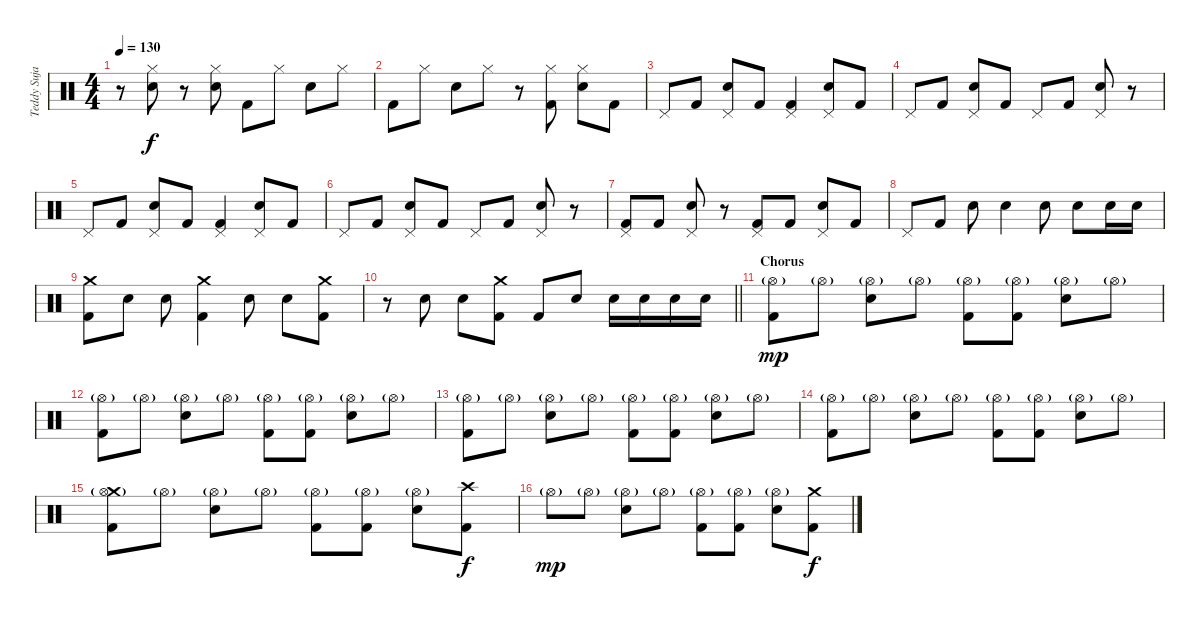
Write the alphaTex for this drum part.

\track ("Teddy Sujaya" "Teddy Suja") {instrument percussion}
\staff {score}
\articulation defaults
\ts (4 4)
\tempo 130
\clef neutral
\ks c
r.8{dy f} ("Hi-Hat (closed)" "Electric Snare (hit)").8 r.8 ("Hi-Hat (closed)" "Electric Snare (hit)").8 "Kick (hit) 2".8 "Hi-Hat (closed)".8 "Electric Snare (hit)".8 "Hi-Hat (closed)".8 |
"Kick (hit) 2".8 "Hi-Hat (closed)".8 "Electric Snare (hit)".8 "Hi-Hat (closed)".8 r.8 ("Hi-Hat (closed)" "Kick (hit) 2").8 ("Hi-Hat (closed)" "Electric Snare (hit)").8 "Kick (hit) 2".8 |
"Pedal Hi-Hat (hit)".8 "Kick (hit) 2".8 ("Pedal Hi-Hat (hit)" "Electric Snare (hit)").8 "Kick (hit) 2".8 ("Pedal Hi-Hat (hit)" "Kick (hit) 2").4 ("Pedal Hi-Hat (hit)" "Electric Snare (hit)").8 "Kick (hit) 2".8 |
"Pedal Hi-Hat (hit)".8 "Kick (hit) 2".8 ("Pedal Hi-Hat (hit)" "Electric Snare (hit)").8 "Kick (hit) 2".8 "Pedal Hi-Hat (hit)".8 "Kick (hit) 2".8 ("Pedal Hi-Hat (hit)" "Electric Snare (hit)").8 r.8 |
"Pedal Hi-Hat (hit)".8 "Kick (hit) 2".8 ("Pedal Hi-Hat (hit)" "Electric Snare (hit)").8 "Kick (hit) 2".8 ("Pedal Hi-Hat (hit)" "Kick (hit) 2").4 ("Pedal Hi-Hat (hit)" "Electric Snare (hit)").8 "Kick (hit) 2".8 |
"Pedal Hi-Hat (hit)".8 "Kick (hit) 2".8 ("Pedal Hi-Hat (hit)" "Electric Snare (hit)").8 "Kick (hit) 2".8 "Pedal Hi-Hat (hit)".8 "Kick (hit) 2".8 ("Pedal Hi-Hat (hit)" "Electric Snare (hit)").8 r.8 |
("Pedal Hi-Hat (hit)" "Kick (hit) 2").8 "Kick (hit) 2".8 ("Pedal Hi-Hat (hit)" "Electric Snare (hit)").8 r.8 ("Pedal Hi-Hat (hit)" "Kick (hit) 2").8 "Kick (hit) 2".8 ("Pedal Hi-Hat (hit)" "Electric Snare (hit)").8 "Kick (hit) 2".8 |
"Pedal Hi-Hat (hit)".8 "Kick (hit) 2".8 "Electric Snare (hit)".8 "Electric Snare (hit)".4 "Electric Snare (hit)".8 "Electric Snare (hit)".8 "Electric Snare (hit)".16 "Electric Snare (hit)".16 |
("Crash medium (hit)" "Kick (hit) 2").8 "Electric Snare (hit)".8 "Electric Snare (hit)".8 ("Crash medium (hit)" "Kick (hit) 2").4 "Electric Snare (hit)".8 "Electric Snare (hit)".8 ("Crash medium (hit)" "Kick (hit) 2").8 |
\barLineRight lightlight
r.8 "Electric Snare (hit)".8 "Electric Snare (hit)".8 ("Crash medium (hit)" "Kick (hit) 2").8 "Kick (hit) 2".8 "Electric Snare (hit)".8 "Electric Snare (hit)".16 "Electric Snare (hit)".16 "Electric Snare (hit)".16 "Electric Snare (hit)".16 |
\section ("" "Chorus")
("Hi-Hat (open)"{g} "Kick (hit) 2").8{dy mp} "Hi-Hat (open)"{g}.8 ("Hi-Hat (open)"{g} "Electric Snare (hit)").8 "Hi-Hat (open)"{g}.8 ("Hi-Hat (open)"{g} "Kick (hit) 2").8 ("Hi-Hat (open)"{g} "Kick (hit) 2").8 ("Hi-Hat (open)"{g} "Electric Snare (hit)").8 "Hi-Hat (open)"{g}.8 |
("Hi-Hat (open)"{g} "Kick (hit) 2").8 "Hi-Hat (open)"{g}.8 ("Hi-Hat (open)"{g} "Electric Snare (hit)").8 "Hi-Hat (open)"{g}.8 ("Hi-Hat (open)"{g} "Kick (hit) 2").8 ("Hi-Hat (open)"{g} "Kick (hit) 2").8 ("Hi-Hat (open)"{g} "Electric Snare (hit)").8 "Hi-Hat (open)"{g}.8 |
("Hi-Hat (open)"{g} "Kick (hit) 2").8 "Hi-Hat (open)"{g}.8 ("Hi-Hat (open)"{g} "Electric Snare (hit)").8 "Hi-Hat (open)"{g}.8 ("Hi-Hat (open)"{g} "Kick (hit) 2").8 ("Hi-Hat (open)"{g} "Kick (hit) 2").8 ("Hi-Hat (open)"{g} "Electric Snare (hit)").8 "Hi-Hat (open)"{g}.8 |
("Hi-Hat (open)"{g} "Kick (hit) 2").8 "Hi-Hat (open)"{g}.8 ("Hi-Hat (open)"{g} "Electric Snare (hit)").8 "Hi-Hat (open)"{g}.8 ("Hi-Hat (open)"{g} "Kick (hit) 2").8 ("Hi-Hat (open)"{g} "Kick (hit) 2").8 ("Hi-Hat (open)"{g} "Electric Snare (hit)").8 "Hi-Hat (open)"{g}.8 |
("Crash medium (hit)" "Hi-Hat (open)"{g} "Kick (hit) 2").8 "Hi-Hat (open)"{g}.8 ("Hi-Hat (open)"{g} "Electric Snare (hit)").8 "Hi-Hat (open)"{g}.8 ("Hi-Hat (open)"{g} "Kick (hit) 2").8 ("Hi-Hat (open)"{g} "Kick (hit) 2").8 ("Hi-Hat (open)"{g} "Electric Snare (hit)").8 ("Crash high (hit)" "Kick (hit) 2").8{dy f} |
"Hi-Hat (open)"{g}.8{dy mp} "Hi-Hat (open)"{g}.8 ("Hi-Hat (open)"{g} "Electric Snare (hit)").8 "Hi-Hat (open)"{g}.8 ("Hi-Hat (open)"{g} "Kick (hit) 2").8 ("Hi-Hat (open)"{g} "Kick (hit) 2").8 ("Hi-Hat (open)"{g} "Electric Snare (hit)").8 ("Crash medium (hit)" "Kick (hit) 2").8{dy f}
